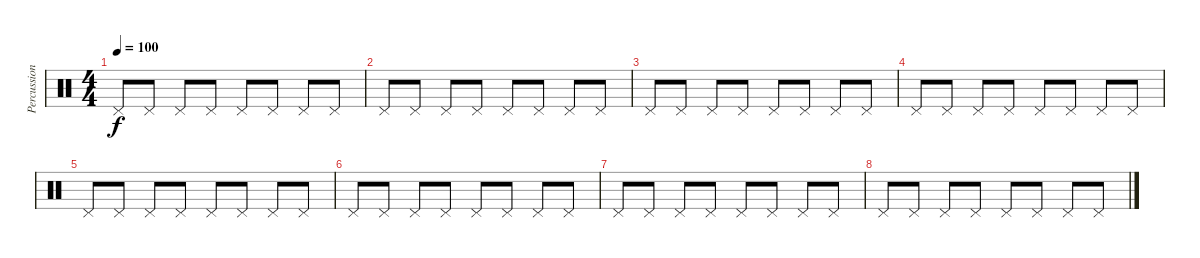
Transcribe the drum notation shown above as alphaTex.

\track ("Percussion" "Percussion") {instrument percussion}
\staff {score}
\articulation defaults
\ts (4 4)
\tempo 100
\clef neutral
\ks c "Pedal Hi-Hat (hit)".8{dy f} "Pedal Hi-Hat (hit)".8 "Pedal Hi-Hat (hit)".8 "Pedal Hi-Hat (hit)".8 "Pedal Hi-Hat (hit)".8 "Pedal Hi-Hat (hit)".8 "Pedal Hi-Hat (hit)".8 "Pedal Hi-Hat (hit)".8
|
"Pedal Hi-Hat (hit)".8 "Pedal Hi-Hat (hit)".8 "Pedal Hi-Hat (hit)".8 "Pedal Hi-Hat (hit)".8 "Pedal Hi-Hat (hit)".8 "Pedal Hi-Hat (hit)".8 "Pedal Hi-Hat (hit)".8 "Pedal Hi-Hat (hit)".8 |
"Pedal Hi-Hat (hit)".8 "Pedal Hi-Hat (hit)".8 "Pedal Hi-Hat (hit)".8 "Pedal Hi-Hat (hit)".8 "Pedal Hi-Hat (hit)".8 "Pedal Hi-Hat (hit)".8 "Pedal Hi-Hat (hit)".8 "Pedal Hi-Hat (hit)".8 |
"Pedal Hi-Hat (hit)".8 "Pedal Hi-Hat (hit)".8 "Pedal Hi-Hat (hit)".8 "Pedal Hi-Hat (hit)".8 "Pedal Hi-Hat (hit)".8 "Pedal Hi-Hat (hit)".8 "Pedal Hi-Hat (hit)".8 "Pedal Hi-Hat (hit)".8 |
"Pedal Hi-Hat (hit)".8 "Pedal Hi-Hat (hit)".8 "Pedal Hi-Hat (hit)".8 "Pedal Hi-Hat (hit)".8 "Pedal Hi-Hat (hit)".8 "Pedal Hi-Hat (hit)".8 "Pedal Hi-Hat (hit)".8 "Pedal Hi-Hat (hit)".8 |
"Pedal Hi-Hat (hit)".8 "Pedal Hi-Hat (hit)".8 "Pedal Hi-Hat (hit)".8 "Pedal Hi-Hat (hit)".8 "Pedal Hi-Hat (hit)".8 "Pedal Hi-Hat (hit)".8 "Pedal Hi-Hat (hit)".8 "Pedal Hi-Hat (hit)".8 |
"Pedal Hi-Hat (hit)".8 "Pedal Hi-Hat (hit)".8 "Pedal Hi-Hat (hit)".8 "Pedal Hi-Hat (hit)".8 "Pedal Hi-Hat (hit)".8 "Pedal Hi-Hat (hit)".8 "Pedal Hi-Hat (hit)".8 "Pedal Hi-Hat (hit)".8 |
"Pedal Hi-Hat (hit)".8 "Pedal Hi-Hat (hit)".8 "Pedal Hi-Hat (hit)".8 "Pedal Hi-Hat (hit)".8 "Pedal Hi-Hat (hit)".8 "Pedal Hi-Hat (hit)".8 "Pedal Hi-Hat (hit)".8 "Pedal Hi-Hat (hit)".8
